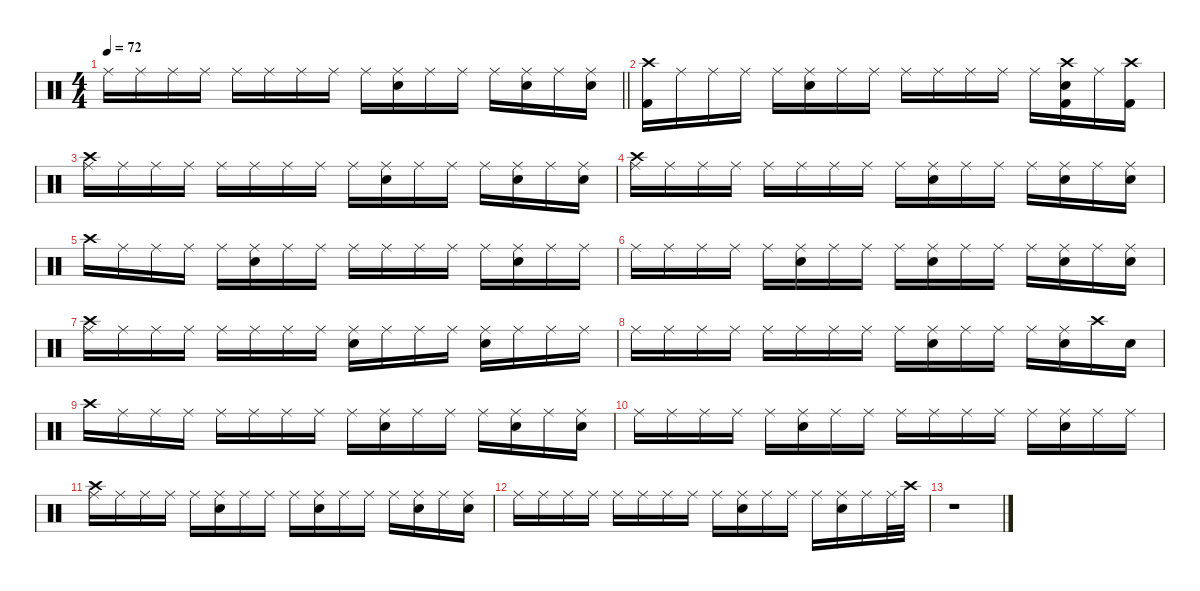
\defaultSystemsLayout 4
\hideDynamics
\bracketExtendMode nobrackets
\singleTrackTrackNamePolicy hidden
\multiTrackTrackNamePolicy hidden
\otherSystemsTrackNameOrientation horizontal
\track ("Drums" "drm.") {defaultSystemsLayout 4 instrument percussion}
\staff {score}
\articulation defaults
\ts (4 4)
\tempo 72
\clef neutral
\barLineRight lightlight
\ks c "Ride (middle)".16{dy f beam Down} "Ride (middle)".16{dy mp beam Down} "Ride (middle)".16{dy mf beam Down} "Ride (middle)".16{dy ff beam Down} "Ride (middle)".16{dy mp beam Down} "Ride (middle)".16{beam Down} "Ride (middle)".16{dy f beam Down} "Ride (middle)".16{dy mp beam Down} "Ride (middle)".16{beam Down}
("Snare (hit) 2" "Ride (middle)").16{dy mf beam Down} "Ride (middle)".16{dy mp beam Down} "Ride (middle)".16{dy mf beam Down} "Ride (middle)".16{dy f beam Down} ("Snare (hit) 2" "Ride (middle)").16{dy mf beam Down} "Ride (middle)".16{dy ff beam Down} ("Snare (hit) 2" "Ride (middle)").16{dy mf beam Down} |
("Kick (hit) 2" "Crash high (hit)").16{dy f beam Down} "Ride (middle)".16{dy mp beam Down} "Ride (middle)".16{beam Down} "Ride (middle)".16{dy f beam Down} "Ride (middle)".16{dy mp beam Down} ("Snare (hit) 2" "Ride (middle)").16{dy f beam Down} "Ride (middle)".16{dy ff beam Down} "Ride (middle)".16{dy mf beam Down} "Ride (middle)".16{beam Down} "Ride (middle)".16{dy f beam Down} "Ride (middle)".16{dy mp beam Down} "Ride (middle)".16{dy f beam Down} "Ride (middle)".16{beam Down} ("Kick (hit) 2" "Snare (hit) 2" "Crash high (hit)").16{dy ff beam Down} "Ride (middle)".16{dy f beam Down} ("Kick (hit) 2" "Crash high (hit)").16{dy ff beam Down} |
("Crash high (hit)" "Ride (middle)").16{dy f beam Down} "Ride (middle)".16{dy mf beam Down} "Ride (middle)".16{dy mp beam Down} "Ride (middle)".16{dy ff beam Down} "Ride (middle)".16{dy mp beam Down} "Ride (middle)".16{beam Down} "Ride (middle)".16{dy f beam Down} "Ride (middle)".16{dy mp beam Down} "Ride (middle)".16{beam Down} ("Snare (hit) 2" "Ride (middle)").16{dy fff beam Down} "Ride (middle)".16{dy mp beam Down} "Ride (middle)".16{beam Down} "Ride (middle)".16{dy f beam Down} ("Snare (hit) 2" "Ride (middle)").16{dy fff beam Down} "Ride (middle)".16{dy mf beam Down} ("Snare (hit) 2" "Ride (middle)").16{dy fff beam Down} |
("Crash high (hit)" "Ride (middle)").16{dy f beam Down} "Ride (middle)".16{dy mp beam Down} "Ride (middle)".16{dy mf beam Down} "Ride (middle)".16{dy ff beam Down} "Ride (middle)".16{dy mp beam Down} "Ride (middle)".16{beam Down} "Ride (middle)".16{dy f beam Down} "Ride (middle)".16{dy mp beam Down} "Ride (middle)".16{beam Down} ("Snare (hit) 2" "Ride (middle)").16{dy fff beam Down} "Ride (middle)".16{dy mp beam Down} "Ride (middle)".16{dy mf beam Down} "Ride (middle)".16{dy f beam Down} ("Snare (hit) 2" "Ride (middle)").16{dy fff beam Down} "Ride (middle)".16{dy ff beam Down} ("Snare (hit) 2" "Ride (middle)").16{dy fff beam Down} |
"Crash high (hit)".16{dy f beam Down} "Ride (middle)".16{dy mp beam Down} "Ride (middle)".16{beam Down} "Ride (middle)".16{dy f beam Down} "Ride (middle)".16{dy mp beam Down} ("Snare (hit) 2" "Ride (middle)").16{dy fff beam Down} "Ride (middle)".16{dy ff beam Down} "Ride (middle)".16{dy mf beam Down} "Ride (middle)".16{beam Down} "Ride (middle)".16{dy f beam Down} "Ride (middle)".16{dy mp beam Down} "Ride (middle)".16{dy f beam Down} "Ride (middle)".16{beam Down} ("Snare (hit) 2" "Ride (middle)").16{dy fff beam Down} "Ride (middle)".16{dy f beam Down} "Ride (middle)".16{beam Down} |
"Ride (middle)".16{beam Down} "Ride (middle)".16{beam Down} "Ride (middle)".16{beam Down} "Ride (middle)".16{beam Down} "Ride (middle)".16{beam Down} ("Snare (hit) 2" "Ride (middle)").16{dy fff beam Down} "Ride (middle)".16{dy f beam Down} "Ride (middle)".16{beam Down} "Ride (middle)".16{dy mf beam Down} ("Snare (hit) 2" "Ride (middle)").16{dy fff beam Down} "Ride (middle)".16{dy mf beam Down} "Ride (middle)".16{dy ff beam Down} "Ride (middle)".16{dy mf beam Down} ("Snare (hit) 2" "Ride (middle)").16{dy fff beam Down} "Ride (middle)".16{dy ff beam Down} ("Snare (hit) 2" "Ride (middle)").16{dy fff beam Down} |
("Crash high (hit)" "Ride (middle)").16{dy f beam Down} "Ride (middle)".16{beam Down} "Ride (middle)".16{beam Down} "Ride (middle)".16{beam Down} "Ride (middle)".16{beam Down} "Ride (middle)".16{dy ff beam Down} "Ride (middle)".16{dy mp beam Down} "Ride (middle)".16{dy f beam Down} ("Snare (hit) 2" "Ride (middle)").16{dy fff beam Down} "Ride (middle)".16{dy f beam Down} "Ride (middle)".16{dy ff beam Down} "Ride (middle)".16{dy f beam Down} ("Snare (hit) 2" "Ride (middle)").16{dy fff beam Down} "Ride (middle)".16{dy f beam Down} "Ride (middle)".16{dy ff beam Down} "Ride (middle)".16{dy f beam Down} |
"Ride (middle)".16{beam Down} "Ride (middle)".16{dy mf beam Down} "Ride (middle)".16{dy mp beam Down} "Ride (middle)".16{dy ff beam Down} "Ride (middle)".16{dy mp beam Down} "Ride (middle)".16{beam Down} "Ride (middle)".16{dy f beam Down} "Ride (middle)".16{dy mp beam Down} "Ride (middle)".16{beam Down} ("Snare (hit) 2" "Ride (middle)").16{dy fff beam Down} "Ride (middle)".16{dy mp beam Down} "Ride (middle)".16{beam Down} "Ride (middle)".16{dy f beam Down} ("Snare (hit) 2" "Ride (middle)").16{dy fff beam Down} "Crash high (hit)".16{dy mf beam Down} "Snare (hit) 2".16{dy fff beam Down} |
"Crash high (hit)".16{dy f beam Down} "Ride (middle)".16{dy mp beam Down} "Ride (middle)".16{dy mf beam Down} "Ride (middle)".16{dy ff beam Down} "Ride (middle)".16{dy mp beam Down} "Ride (middle)".16{beam Down} "Ride (middle)".16{dy f beam Down} "Ride (middle)".16{dy mp beam Down} "Ride (middle)".16{beam Down} ("Snare (hit) 2" "Ride (middle)").16{dy fff beam Down} "Ride (middle)".16{dy mp beam Down} "Ride (middle)".16{dy mf beam Down} "Ride (middle)".16{dy f beam Down} ("Snare (hit) 2" "Ride (middle)").16{dy fff beam Down} "Ride (middle)".16{dy ff beam Down} ("Snare (hit) 2" "Ride (middle)").16{dy fff beam Down} |
"Ride (middle)".16{dy f beam Down} "Ride (middle)".16{dy mp beam Down} "Ride (middle)".16{beam Down} "Ride (middle)".16{dy f beam Down} "Ride (middle)".16{dy mp beam Down} ("Snare (hit) 2" "Ride (middle)").16{dy fff beam Down} "Ride (middle)".16{dy ff beam Down} "Ride (middle)".16{dy mf beam Down} "Ride (middle)".16{beam Down} "Ride (middle)".16{dy f beam Down} "Ride (middle)".16{dy mp beam Down} "Ride (middle)".16{dy f beam Down} "Ride (middle)".16{beam Down} ("Snare (hit) 2" "Ride (middle)").16{dy fff beam Down} "Ride (middle)".16{dy f beam Down} "Ride (middle)".16{beam Down} |
("Crash high (hit)" "Ride (middle)").16{beam Down} "Ride (middle)".16{beam Down} "Ride (middle)".16{beam Down} "Ride (middle)".16{beam Down} "Ride (middle)".16{beam Down} ("Snare (hit) 2" "Ride (middle)").16{dy fff beam Down} "Ride (middle)".16{dy f beam Down} "Ride (middle)".16{beam Down} "Ride (middle)".16{dy mf beam Down} ("Snare (hit) 2" "Ride (middle)").16{dy fff beam Down} "Ride (middle)".16{dy mf beam Down} "Ride (middle)".16{dy ff beam Down} "Ride (middle)".16{dy mf beam Down} ("Snare (hit) 2" "Ride (middle)").16{dy fff beam Down} "Ride (middle)".16{dy ff beam Down} ("Snare (hit) 2" "Ride (middle)").16{dy fff beam Down} |
"Ride (middle)".16{dy f beam Down} "Ride (middle)".16{beam Down} "Ride (middle)".16{beam Down} "Ride (middle)".16{beam Down} "Ride (middle)".16{beam Down} "Ride (middle)".16{beam Down} "Ride (middle)".16{dy mp beam Down} "Ride (middle)".16{beam Down} "Ride (middle)".16{dy f beam Down} ("Snare (hit) 2" "Ride (middle)").16{dy fff beam Down} "Ride (middle)".16{dy f beam Down} "Ride (middle)".16{dy ff beam Down} "Ride (middle)".16{dy f beam Down} ("Snare (hit) 2" "Ride (middle)").16{dy fff beam Down} "Ride (middle)".16{dy f beam Down} "Ride (middle)".32{beam Down} "Crash high (hit)".32{beam Down} |
r.1{beam Down}
